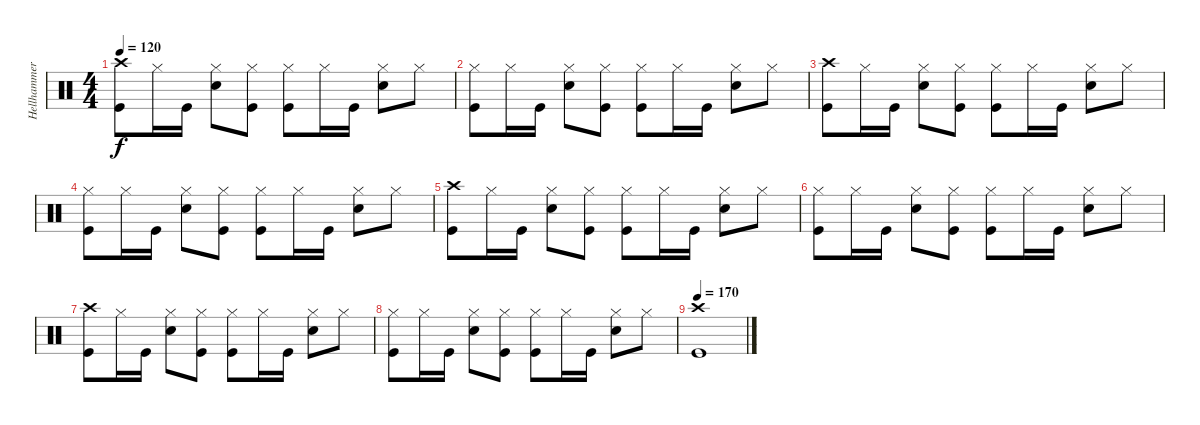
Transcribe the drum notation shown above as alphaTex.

\track ("Hellhammer" "Hellhammer") {instrument percussion}
\staff {score}
\articulation defaults
\ts (4 4)
\tempo 120
\clef neutral
\ks c
("Crash high (hit)" "Kick (hit)").8{dy f} "Hi-Hat (closed)".16 "Kick (hit)".16 ("Hi-Hat (closed)" "Electric Snare (hit)").8 ("Hi-Hat (closed)" "Kick (hit)").8 ("Hi-Hat (closed)" "Kick (hit)").8 "Hi-Hat (closed)".16 "Kick (hit)".16 ("Hi-Hat (closed)" "Electric Snare (hit)").8 "Hi-Hat (closed)".8 |
("Hi-Hat (closed)" "Kick (hit)").8 "Hi-Hat (closed)".16 "Kick (hit)".16 ("Hi-Hat (closed)" "Electric Snare (hit)").8 ("Hi-Hat (closed)" "Kick (hit)").8 ("Hi-Hat (closed)" "Kick (hit)").8 "Hi-Hat (closed)".16 "Kick (hit)".16 ("Hi-Hat (closed)" "Electric Snare (hit)").8 "Hi-Hat (closed)".8 |
("Crash high (hit)" "Kick (hit)").8 "Hi-Hat (closed)".16 "Kick (hit)".16 ("Hi-Hat (closed)" "Electric Snare (hit)").8 ("Hi-Hat (closed)" "Kick (hit)").8 ("Hi-Hat (closed)" "Kick (hit)").8 "Hi-Hat (closed)".16 "Kick (hit)".16 ("Hi-Hat (closed)" "Electric Snare (hit)").8 "Hi-Hat (closed)".8 |
("Hi-Hat (closed)" "Kick (hit)").8 "Hi-Hat (closed)".16 "Kick (hit)".16 ("Hi-Hat (closed)" "Electric Snare (hit)").8 ("Hi-Hat (closed)" "Kick (hit)").8 ("Hi-Hat (closed)" "Kick (hit)").8 "Hi-Hat (closed)".16 "Kick (hit)".16 ("Hi-Hat (closed)" "Electric Snare (hit)").8 "Hi-Hat (closed)".8 |
("Crash high (hit)" "Kick (hit)").8 "Hi-Hat (closed)".16 "Kick (hit)".16 ("Hi-Hat (closed)" "Electric Snare (hit)").8 ("Hi-Hat (closed)" "Kick (hit)").8 ("Hi-Hat (closed)" "Kick (hit)").8 "Hi-Hat (closed)".16 "Kick (hit)".16 ("Hi-Hat (closed)" "Electric Snare (hit)").8 "Hi-Hat (closed)".8 |
("Hi-Hat (closed)" "Kick (hit)").8 "Hi-Hat (closed)".16 "Kick (hit)".16 ("Hi-Hat (closed)" "Electric Snare (hit)").8 ("Hi-Hat (closed)" "Kick (hit)").8 ("Hi-Hat (closed)" "Kick (hit)").8 "Hi-Hat (closed)".16 "Kick (hit)".16 ("Hi-Hat (closed)" "Electric Snare (hit)").8 "Hi-Hat (closed)".8 |
("Crash high (hit)" "Kick (hit)").8 "Hi-Hat (closed)".16 "Kick (hit)".16 ("Hi-Hat (closed)" "Electric Snare (hit)").8 ("Hi-Hat (closed)" "Kick (hit)").8 ("Hi-Hat (closed)" "Kick (hit)").8 "Hi-Hat (closed)".16 "Kick (hit)".16 ("Hi-Hat (closed)" "Electric Snare (hit)").8 "Hi-Hat (closed)".8 |
("Hi-Hat (closed)" "Kick (hit)").8 "Hi-Hat (closed)".16 "Kick (hit)".16 ("Hi-Hat (closed)" "Electric Snare (hit)").8 ("Hi-Hat (closed)" "Kick (hit)").8 ("Hi-Hat (closed)" "Kick (hit)").8 "Hi-Hat (closed)".16 "Kick (hit)".16 ("Hi-Hat (closed)" "Electric Snare (hit)").8 "Hi-Hat (closed)".8 |
\tempo 170
("Crash high (hit)" "Kick (hit)").1
